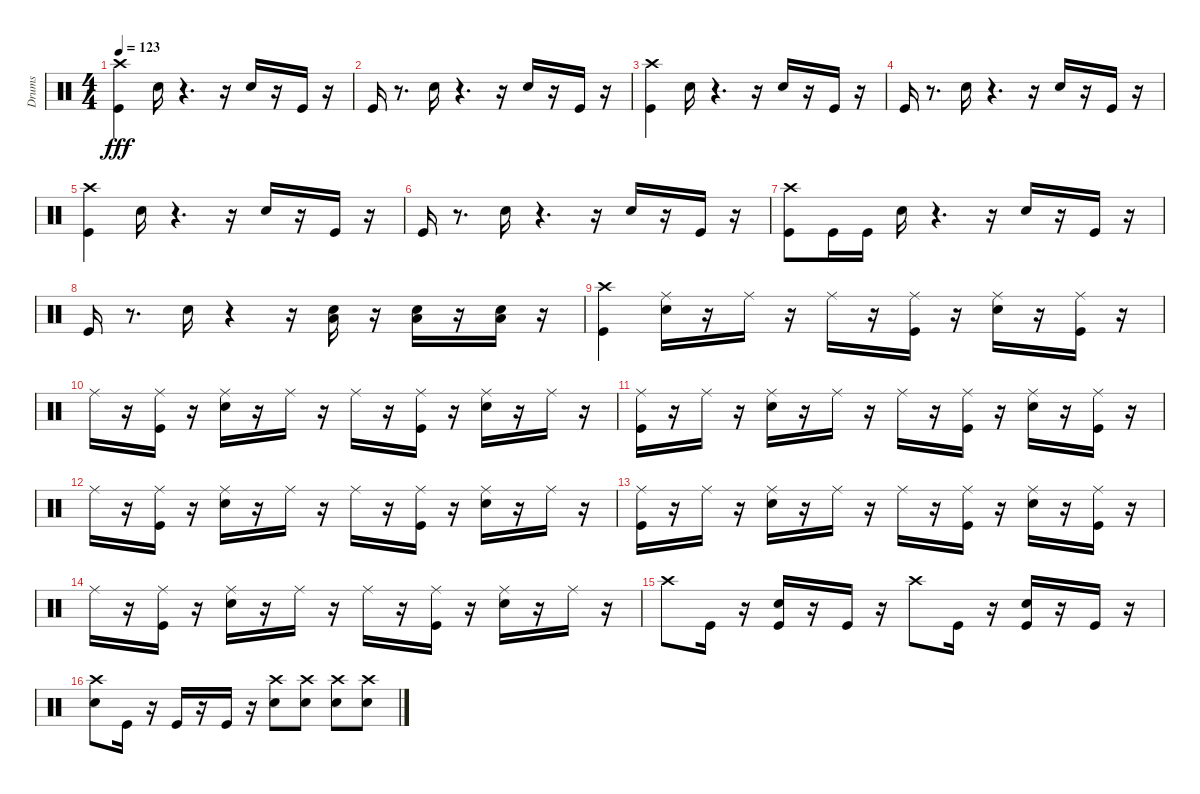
\track ("Drums" "Drums") {instrument percussion}
\staff {score}
\articulation defaults
\ts (4 4)
\tempo 123
\clef neutral
\ks c
("Crash high (hit)" "Kick (hit)").4{dy fff} "Snare (hit) 2".16 r.4{d} r.16 "Snare (hit) 2".16 r.16 "Kick (hit)".16 r.16 |
"Kick (hit)".16 r.8{d} "Snare (hit) 2".16 r.4{d} r.16 "Snare (hit) 2".16 r.16 "Kick (hit)".16 r.16 |
("Crash high (hit)" "Kick (hit)").4 "Snare (hit) 2".16 r.4{d} r.16 "Snare (hit) 2".16 r.16 "Kick (hit)".16 r.16 |
"Kick (hit)".16 r.8{d} "Snare (hit) 2".16 r.4{d} r.16 "Snare (hit) 2".16 r.16 "Kick (hit)".16 r.16 |
("Crash high (hit)" "Kick (hit)").4 "Snare (hit) 2".16 r.4{d} r.16 "Snare (hit) 2".16 r.16 "Kick (hit)".16 r.16 |
"Kick (hit)".16 r.8{d} "Snare (hit) 2".16 r.4{d} r.16 "Snare (hit) 2".16 r.16 "Kick (hit)".16 r.16 |
("Crash high (hit)" "Kick (hit)").8 "Kick (hit)".16 "Kick (hit)".16 "Snare (hit) 2".16 r.4{d} r.16 "Snare (hit) 2".16 r.16 "Kick (hit)".16 r.16 |
"Kick (hit)".16 r.8{d} "Snare (hit) 2".16 r.4 r.16 ("Snare (hit) 2" "Low Floor Tom (hit)").16 r.16 ("Snare (hit) 2" "Low Floor Tom (hit)").16 r.16 ("Snare (hit) 2" "Low Floor Tom (hit)").16 r.16 |
("Crash high (hit)" "Kick (hit)").4 ("Snare (hit) 2" "Ride (middle)").16 r.16 "Ride (middle)".16 r.16 "Ride (middle)".16 r.16 ("Kick (hit)" "Ride (middle)").16 r.16 ("Snare (hit) 2" "Ride (middle)").16 r.16 ("Kick (hit)" "Ride (middle)").16 r.16 |
"Ride (middle)".16 r.16 ("Ride (middle)" "Kick (hit)").16 r.16 ("Ride (middle)" "Snare (hit) 2").16 r.16 "Ride (middle)".16 r.16 "Ride (middle)".16 r.16 ("Ride (middle)" "Kick (hit)").16 r.16 ("Ride (middle)" "Snare (hit) 2").16 r.16 "Ride (middle)".16 r.16 |
("Kick (hit)" "Ride (middle)").16 r.16 "Ride (middle)".16 r.16 ("Snare (hit) 2" "Ride (middle)").16 r.16 "Ride (middle)".16 r.16 "Ride (middle)".16 r.16 ("Kick (hit)" "Ride (middle)").16 r.16 ("Snare (hit) 2" "Ride (middle)").16 r.16 ("Kick (hit)" "Ride (middle)").16 r.16 |
"Ride (middle)".16 r.16 ("Ride (middle)" "Kick (hit)").16 r.16 ("Ride (middle)" "Snare (hit) 2").16 r.16 "Ride (middle)".16 r.16 "Ride (middle)".16 r.16 ("Ride (middle)" "Kick (hit)").16 r.16 ("Ride (middle)" "Snare (hit) 2").16 r.16 "Ride (middle)".16 r.16 |
("Kick (hit)" "Ride (middle)").16 r.16 "Ride (middle)".16 r.16 ("Snare (hit) 2" "Ride (middle)").16 r.16 "Ride (middle)".16 r.16 "Ride (middle)".16 r.16 ("Kick (hit)" "Ride (middle)").16 r.16 ("Snare (hit) 2" "Ride (middle)").16 r.16 ("Kick (hit)" "Ride (middle)").16 r.16 |
"Ride (middle)".16 r.16 ("Ride (middle)" "Kick (hit)").16 r.16 ("Ride (middle)" "Snare (hit) 2").16 r.16 "Ride (middle)".16 r.16 "Ride (middle)".16 r.16 ("Ride (middle)" "Kick (hit)").16 r.16 ("Ride (middle)" "Snare (hit) 2").16 r.16 "Ride (middle)".16 r.16 |
"Crash high (hit)".8 "Kick (hit)".16 r.16 ("Snare (hit) 2" "Kick (hit)").16 r.16 "Kick (hit)".16 r.16 "Crash high (hit)".8 "Kick (hit)".16 r.16 ("Snare (hit) 2" "Kick (hit)").16 r.16 "Kick (hit)".16 r.16 |
("Snare (hit) 2" "Crash high (hit)").8 "Kick (hit)".16 r.16 "Kick (hit)".16 r.16 "Kick (hit)".16 r.16 ("Snare (hit) 2" "Crash high (hit)").8 ("Snare (hit) 2" "Crash high (hit)").8 ("Snare (hit) 2" "Crash high (hit)").8 ("Snare (hit) 2" "Crash high (hit)").8
